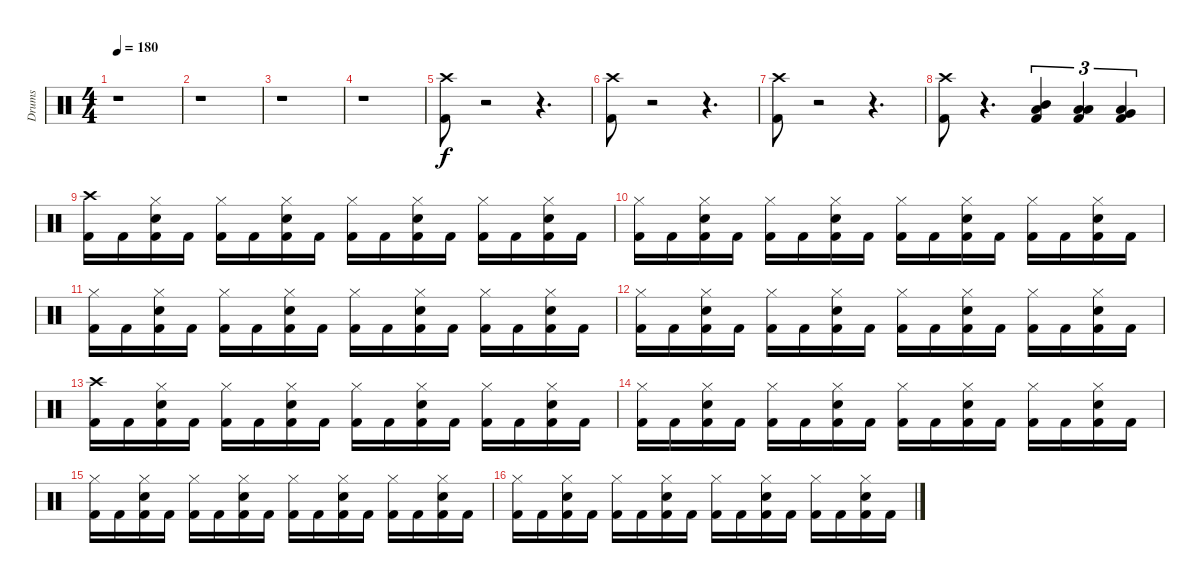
\track ("Drums" "Drums") {instrument percussion}
\staff {score}
\articulation defaults
\ts (4 4)
\tempo 180
\clef neutral
\ks c
r.1{dy f} |
r.1 |
r.1 |
r.1 |
("Kick (hit) 2" "Crash high (hit)").8 r.2 r.4{d} |
("Kick (hit) 2" "Crash high (hit)").8 r.2 r.4{d} |
("Kick (hit) 2" "Crash high (hit)").8 r.2 r.4{d} |
("Kick (hit) 2" "Crash high (hit)").8 r.4{d} ("Kick (hit) 2" "Mid Tom (hit)" "Low Tom (hit)").4{tu (3 2)} ("Kick (hit) 2" "Low Tom (hit)" "Low Tom (hit)").4{tu (3 2)} ("Kick (hit) 2" "Very Low Tom (hit)" "Low Tom (hit)").4{tu (3 2)} |
("Kick (hit) 2" "Crash high (hit)").16 "Kick (hit) 2".16 ("Kick (hit) 2" "Hi-Hat (closed)" "Snare (hit) 2").16 "Kick (hit) 2".16 ("Kick (hit) 2" "Hi-Hat (closed)").16 "Kick (hit) 2".16 ("Kick (hit) 2" "Hi-Hat (closed)" "Snare (hit) 2").16 "Kick (hit) 2".16 ("Kick (hit) 2" "Hi-Hat (closed)").16 "Kick (hit) 2".16 ("Kick (hit) 2" "Hi-Hat (closed)" "Snare (hit) 2").16 "Kick (hit) 2".16 ("Kick (hit) 2" "Hi-Hat (closed)").16 "Kick (hit) 2".16 ("Kick (hit) 2" "Hi-Hat (closed)" "Snare (hit) 2").16 "Kick (hit) 2".16 |
("Kick (hit) 2" "Hi-Hat (closed)").16 "Kick (hit) 2".16 ("Kick (hit) 2" "Hi-Hat (closed)" "Snare (hit) 2").16 "Kick (hit) 2".16 ("Kick (hit) 2" "Hi-Hat (closed)").16 "Kick (hit) 2".16 ("Kick (hit) 2" "Hi-Hat (closed)" "Snare (hit) 2").16 "Kick (hit) 2".16 ("Kick (hit) 2" "Hi-Hat (closed)").16 "Kick (hit) 2".16 ("Kick (hit) 2" "Hi-Hat (closed)" "Snare (hit) 2").16 "Kick (hit) 2".16 ("Kick (hit) 2" "Hi-Hat (closed)").16 "Kick (hit) 2".16 ("Kick (hit) 2" "Hi-Hat (closed)" "Snare (hit) 2").16 "Kick (hit) 2".16 |
("Kick (hit) 2" "Hi-Hat (closed)").16 "Kick (hit) 2".16 ("Kick (hit) 2" "Hi-Hat (closed)" "Snare (hit) 2").16 "Kick (hit) 2".16 ("Kick (hit) 2" "Hi-Hat (closed)").16 "Kick (hit) 2".16 ("Kick (hit) 2" "Hi-Hat (closed)" "Snare (hit) 2").16 "Kick (hit) 2".16 ("Kick (hit) 2" "Hi-Hat (closed)").16 "Kick (hit) 2".16 ("Kick (hit) 2" "Hi-Hat (closed)" "Snare (hit) 2").16 "Kick (hit) 2".16 ("Kick (hit) 2" "Hi-Hat (closed)").16 "Kick (hit) 2".16 ("Kick (hit) 2" "Hi-Hat (closed)" "Snare (hit) 2").16 "Kick (hit) 2".16 |
("Kick (hit) 2" "Hi-Hat (closed)").16 "Kick (hit) 2".16 ("Kick (hit) 2" "Hi-Hat (closed)" "Snare (hit) 2").16 "Kick (hit) 2".16 ("Kick (hit) 2" "Hi-Hat (closed)").16 "Kick (hit) 2".16 ("Kick (hit) 2" "Hi-Hat (closed)" "Snare (hit) 2").16 "Kick (hit) 2".16 ("Kick (hit) 2" "Hi-Hat (closed)").16 "Kick (hit) 2".16 ("Kick (hit) 2" "Hi-Hat (closed)" "Snare (hit) 2").16 "Kick (hit) 2".16 ("Kick (hit) 2" "Hi-Hat (closed)").16 "Kick (hit) 2".16 ("Kick (hit) 2" "Hi-Hat (closed)" "Snare (hit) 2").16 "Kick (hit) 2".16 |
("Kick (hit) 2" "Crash high (hit)").16 "Kick (hit) 2".16 ("Kick (hit) 2" "Hi-Hat (closed)" "Snare (hit) 2").16 "Kick (hit) 2".16 ("Kick (hit) 2" "Hi-Hat (closed)").16 "Kick (hit) 2".16 ("Kick (hit) 2" "Hi-Hat (closed)" "Snare (hit) 2").16 "Kick (hit) 2".16 ("Kick (hit) 2" "Hi-Hat (closed)").16 "Kick (hit) 2".16 ("Kick (hit) 2" "Hi-Hat (closed)" "Snare (hit) 2").16 "Kick (hit) 2".16 ("Kick (hit) 2" "Hi-Hat (closed)").16 "Kick (hit) 2".16 ("Kick (hit) 2" "Hi-Hat (closed)" "Snare (hit) 2").16 "Kick (hit) 2".16 |
("Kick (hit) 2" "Hi-Hat (closed)").16 "Kick (hit) 2".16 ("Kick (hit) 2" "Hi-Hat (closed)" "Snare (hit) 2").16 "Kick (hit) 2".16 ("Kick (hit) 2" "Hi-Hat (closed)").16 "Kick (hit) 2".16 ("Kick (hit) 2" "Hi-Hat (closed)" "Snare (hit) 2").16 "Kick (hit) 2".16 ("Kick (hit) 2" "Hi-Hat (closed)").16 "Kick (hit) 2".16 ("Kick (hit) 2" "Hi-Hat (closed)" "Snare (hit) 2").16 "Kick (hit) 2".16 ("Kick (hit) 2" "Hi-Hat (closed)").16 "Kick (hit) 2".16 ("Kick (hit) 2" "Hi-Hat (closed)" "Snare (hit) 2").16 "Kick (hit) 2".16 |
("Kick (hit) 2" "Hi-Hat (closed)").16 "Kick (hit) 2".16 ("Kick (hit) 2" "Hi-Hat (closed)" "Snare (hit) 2").16 "Kick (hit) 2".16 ("Kick (hit) 2" "Hi-Hat (closed)").16 "Kick (hit) 2".16 ("Kick (hit) 2" "Hi-Hat (closed)" "Snare (hit) 2").16 "Kick (hit) 2".16 ("Kick (hit) 2" "Hi-Hat (closed)").16 "Kick (hit) 2".16 ("Kick (hit) 2" "Hi-Hat (closed)" "Snare (hit) 2").16 "Kick (hit) 2".16 ("Kick (hit) 2" "Hi-Hat (closed)").16 "Kick (hit) 2".16 ("Kick (hit) 2" "Hi-Hat (closed)" "Snare (hit) 2").16 "Kick (hit) 2".16 |
("Kick (hit) 2" "Hi-Hat (closed)").16 "Kick (hit) 2".16 ("Kick (hit) 2" "Hi-Hat (closed)" "Snare (hit) 2").16 "Kick (hit) 2".16 ("Kick (hit) 2" "Hi-Hat (closed)").16 "Kick (hit) 2".16 ("Kick (hit) 2" "Hi-Hat (closed)" "Snare (hit) 2").16 "Kick (hit) 2".16 ("Kick (hit) 2" "Hi-Hat (closed)").16 "Kick (hit) 2".16 ("Kick (hit) 2" "Hi-Hat (closed)" "Snare (hit) 2").16 "Kick (hit) 2".16 ("Kick (hit) 2" "Hi-Hat (closed)").16 "Kick (hit) 2".16 ("Kick (hit) 2" "Hi-Hat (closed)" "Snare (hit) 2").16 "Kick (hit) 2".16
